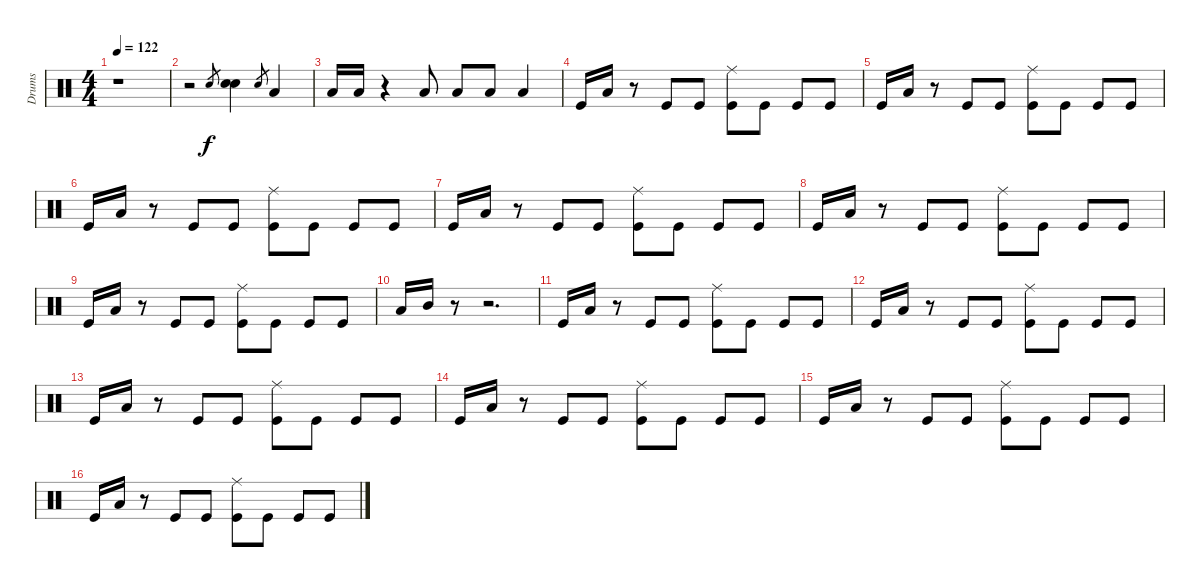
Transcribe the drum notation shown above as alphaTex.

\track ("Drums" "Drums") {instrument percussion}
\staff {score}
\articulation defaults
\ts (4 4)
\tempo 122
\clef neutral
\ks c
r.1{dy f} |
r.2 "Snare (hit) 2".8{gr} ("Snare (hit) 2" "Snare (hit) 2").4 "Snare (hit) 2".8{gr} "Low Tom (hit)".4 |
"Low Tom (hit)".16 "Low Tom (hit)".16 r.4 "Low Tom (hit)".8 "Low Tom (hit)".8 "Low Tom (hit)".8 "Low Tom (hit)".4 |
"Kick (hit)".16 "Low Tom (hit)".16 r.8 "Kick (hit)".8 "Kick (hit)".8 ("Ride (middle)" "Kick (hit)").8 "Kick (hit)".8 "Kick (hit)".8 "Kick (hit)".8 |
"Kick (hit)".16 "Low Tom (hit)".16 r.8 "Kick (hit)".8 "Kick (hit)".8 ("Ride (middle)" "Kick (hit)").8 "Kick (hit)".8 "Kick (hit)".8 "Kick (hit)".8 |
"Kick (hit)".16 "Low Tom (hit)".16 r.8 "Kick (hit)".8 "Kick (hit)".8 ("Ride (middle)" "Kick (hit)").8 "Kick (hit)".8 "Kick (hit)".8 "Kick (hit)".8 |
"Kick (hit)".16 "Low Tom (hit)".16 r.8 "Kick (hit)".8 "Kick (hit)".8 ("Ride (middle)" "Kick (hit)").8 "Kick (hit)".8 "Kick (hit)".8 "Kick (hit)".8 |
"Kick (hit)".16 "Low Tom (hit)".16 r.8 "Kick (hit)".8 "Kick (hit)".8 ("Ride (middle)" "Kick (hit)").8 "Kick (hit)".8 "Kick (hit)".8 "Kick (hit)".8 |
"Kick (hit)".16 "Low Tom (hit)".16 r.8 "Kick (hit)".8 "Kick (hit)".8 ("Ride (middle)" "Kick (hit)").8 "Kick (hit)".8 "Kick (hit)".8 "Kick (hit)".8 |
"Low Tom (hit)".16 "Mid Tom (hit)".16 r.8 r.2{d} |
"Kick (hit)".16 "Low Tom (hit)".16 r.8 "Kick (hit)".8 "Kick (hit)".8 ("Ride (middle)" "Kick (hit)").8 "Kick (hit)".8 "Kick (hit)".8 "Kick (hit)".8 |
"Kick (hit)".16 "Low Tom (hit)".16 r.8 "Kick (hit)".8 "Kick (hit)".8 ("Ride (middle)" "Kick (hit)").8 "Kick (hit)".8 "Kick (hit)".8 "Kick (hit)".8 |
"Kick (hit)".16 "Low Tom (hit)".16 r.8 "Kick (hit)".8 "Kick (hit)".8 ("Ride (middle)" "Kick (hit)").8 "Kick (hit)".8 "Kick (hit)".8 "Kick (hit)".8 |
"Kick (hit)".16 "Low Tom (hit)".16 r.8 "Kick (hit)".8 "Kick (hit)".8 ("Ride (middle)" "Kick (hit)").8 "Kick (hit)".8 "Kick (hit)".8 "Kick (hit)".8 |
"Kick (hit)".16 "Low Tom (hit)".16 r.8 "Kick (hit)".8 "Kick (hit)".8 ("Ride (middle)" "Kick (hit)").8 "Kick (hit)".8 "Kick (hit)".8 "Kick (hit)".8 |
"Kick (hit)".16 "Low Tom (hit)".16 r.8 "Kick (hit)".8 "Kick (hit)".8 ("Ride (middle)" "Kick (hit)").8 "Kick (hit)".8 "Kick (hit)".8 "Kick (hit)".8
